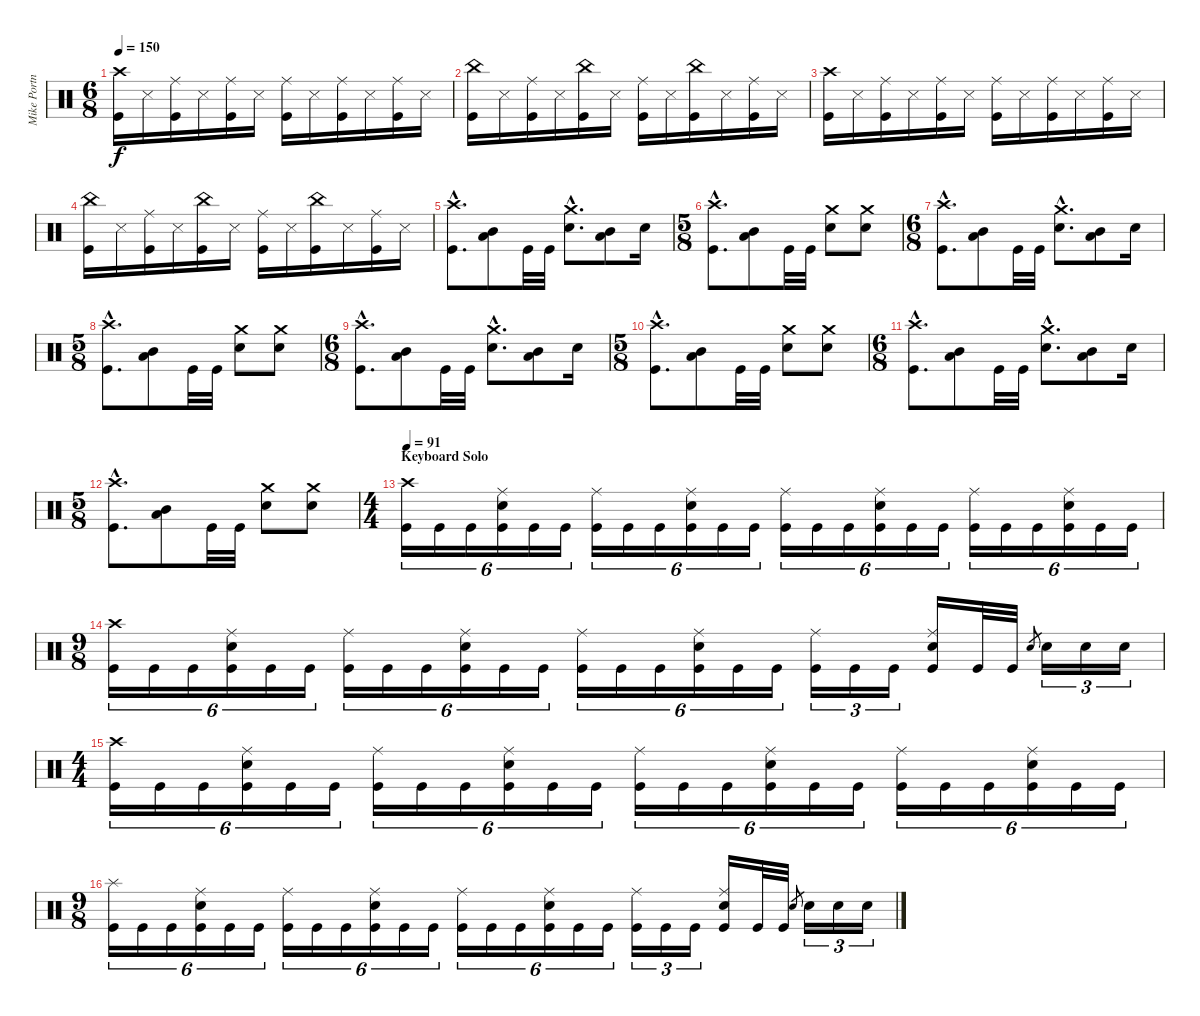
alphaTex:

\track ("Mike Portnoy" "Mike Portn") {instrument percussion}
\staff {score}
\articulation defaults
\ts (6 8)
\tempo 150
\clef neutral
\ks c
("Crash high (hit)" "Kick (hit)").16{dy f} "Snare (side stick) 3".16 ("Ride (middle)" "Kick (hit)").16 "Snare (side stick) 3".16 ("Ride (middle)" "Kick (hit)").16 "Snare (side stick) 3".16 ("Ride (middle)" "Kick (hit)").16 "Snare (side stick) 3".16 ("Ride (middle)" "Kick (hit)").16 "Snare (side stick) 3".16 ("Ride (middle)" "Kick (hit)").16 "Snare (side stick) 3".16 |
("China (hit)" "Kick (hit)").16 "Snare (side stick) 3".16 ("Ride (middle)" "Kick (hit)").16 "Snare (side stick) 3".16 ("China (hit)" "Kick (hit)").16 "Snare (side stick) 3".16 ("Ride (middle)" "Kick (hit)").16 "Snare (side stick) 3".16 ("China (hit)" "Kick (hit)").16 "Snare (side stick) 3".16 ("Ride (middle)" "Kick (hit)").16 "Snare (side stick) 3".16 |
("Crash high (hit)" "Kick (hit)").16 "Snare (side stick) 3".16 ("Ride (middle)" "Kick (hit)").16 "Snare (side stick) 3".16 ("Ride (middle)" "Kick (hit)").16 "Snare (side stick) 3".16 ("Ride (middle)" "Kick (hit)").16 "Snare (side stick) 3".16 ("Ride (middle)" "Kick (hit)").16 "Snare (side stick) 3".16 ("Ride (middle)" "Kick (hit)").16 "Snare (side stick) 3".16 |
("China (hit)" "Kick (hit)").16 "Snare (side stick) 3".16 ("Ride (middle)" "Kick (hit)").16 "Snare (side stick) 3".16 ("China (hit)" "Kick (hit)").16 "Snare (side stick) 3".16 ("Ride (middle)" "Kick (hit)").16 "Snare (side stick) 3".16 ("China (hit)" "Kick (hit)").16 "Snare (side stick) 3".16 ("Ride (middle)" "Kick (hit)").16 "Snare (side stick) 3".16 |
("Crash high (hit)"{hac} "Kick (hit)"{hac}).8{d} ("Mid Tom (hit)" "Low Tom (hit)").8 "Kick (hit)".32 "Kick (hit)".32 ("Crash medium (hit)"{hac} "Electric Snare (hit)"{hac}).8{d} ("Mid Tom (hit)" "Low Tom (hit)").8 "Electric Snare (hit)".16 |
\ts (5 8)
("Crash high (hit)"{hac} "Kick (hit)"{hac}).8{d} ("Mid Tom (hit)" "Low Tom (hit)").8 "Kick (hit)".32 "Kick (hit)".32 ("Crash medium (hit)" "Electric Snare (hit)").8 ("Crash medium (hit)" "Electric Snare (hit)").8 |
\ts (6 8)
("Crash high (hit)"{hac} "Kick (hit)"{hac}).8{d} ("Mid Tom (hit)" "Low Tom (hit)").8 "Kick (hit)".32 "Kick (hit)".32 ("Crash medium (hit)"{hac} "Electric Snare (hit)"{hac}).8{d} ("Mid Tom (hit)" "Low Tom (hit)").8 "Electric Snare (hit)".16 |
\ts (5 8)
("Crash high (hit)"{hac} "Kick (hit)"{hac}).8{d} ("Mid Tom (hit)" "Low Tom (hit)").8 "Kick (hit)".32 "Kick (hit)".32 ("Crash medium (hit)" "Electric Snare (hit)").8 ("Crash medium (hit)" "Electric Snare (hit)").8 |
\ts (6 8)
("Crash high (hit)"{hac} "Kick (hit)"{hac}).8{d} ("Mid Tom (hit)" "Low Tom (hit)").8 "Kick (hit)".32 "Kick (hit)".32 ("Crash medium (hit)"{hac} "Electric Snare (hit)"{hac}).8{d} ("Mid Tom (hit)" "Low Tom (hit)").8 "Electric Snare (hit)".16 |
\ts (5 8)
("Crash high (hit)"{hac} "Kick (hit)"{hac}).8{d} ("Mid Tom (hit)" "Low Tom (hit)").8 "Kick (hit)".32 "Kick (hit)".32 ("Crash medium (hit)" "Electric Snare (hit)").8 ("Crash medium (hit)" "Electric Snare (hit)").8 |
\ts (6 8)
("Crash high (hit)"{hac} "Kick (hit)"{hac}).8{d} ("Mid Tom (hit)" "Low Tom (hit)").8 "Kick (hit)".32 "Kick (hit)".32 ("Crash medium (hit)"{hac} "Electric Snare (hit)"{hac}).8{d} ("Mid Tom (hit)" "Low Tom (hit)").8 "Electric Snare (hit)".16 |
\ts (5 8)
("Crash high (hit)"{hac} "Kick (hit)"{hac}).8{d} ("Mid Tom (hit)" "Low Tom (hit)").8 "Kick (hit)".32 "Kick (hit)".32 ("Crash medium (hit)" "Electric Snare (hit)").8 ("Crash medium (hit)" "Electric Snare (hit)").8 |
\ts (4 4)
\section ("" "Keyboard Solo")
\tempo 91
("Crash high (hit)" "Kick (hit)").16{tu (6 4)} "Kick (hit)".16{tu (6 4)} "Kick (hit)".16{tu (6 4)} ("Ride (middle)" "Electric Snare (hit)" "Kick (hit)").16{tu (6 4)} "Kick (hit)".16{tu (6 4)} "Kick (hit)".16{tu (6 4)} ("Ride (middle)" "Kick (hit)").16{tu (6 4)} "Kick (hit)".16{tu (6 4)} "Kick (hit)".16{tu (6 4)} ("Ride (middle)" "Electric Snare (hit)" "Kick (hit)").16{tu (6 4)} "Kick (hit)".16{tu (6 4)} "Kick (hit)".16{tu (6 4)} ("Ride (middle)" "Kick (hit)").16{tu (6 4)} "Kick (hit)".16{tu (6 4)} "Kick (hit)".16{tu (6 4)} ("Ride (middle)" "Electric Snare (hit)" "Kick (hit)").16{tu (6 4)} "Kick (hit)".16{tu (6 4)} "Kick (hit)".16{tu (6 4)} ("Ride (middle)" "Kick (hit)").16{tu (6 4)} "Kick (hit)".16{tu (6 4)} "Kick (hit)".16{tu (6 4)} ("Ride (middle)" "Electric Snare (hit)" "Kick (hit)").16{tu (6 4)} "Kick (hit)".16{tu (6 4)} "Kick (hit)".16{tu (6 4)} |
\ts (9 8)
("Crash high (hit)" "Kick (hit)").16{tu (6 4)} "Kick (hit)".16{tu (6 4)} "Kick (hit)".16{tu (6 4)} ("Ride (middle)" "Electric Snare (hit)" "Kick (hit)").16{tu (6 4)} "Kick (hit)".16{tu (6 4)} "Kick (hit)".16{tu (6 4)} ("Ride (middle)" "Kick (hit)").16{tu (6 4)} "Kick (hit)".16{tu (6 4)} "Kick (hit)".16{tu (6 4)} ("Ride (middle)" "Electric Snare (hit)" "Kick (hit)").16{tu (6 4)} "Kick (hit)".16{tu (6 4)} "Kick (hit)".16{tu (6 4)} ("Ride (middle)" "Kick (hit)").16{tu (6 4)} "Kick (hit)".16{tu (6 4)} "Kick (hit)".16{tu (6 4)} ("Ride (middle)" "Electric Snare (hit)" "Kick (hit)").16{tu (6 4)} "Kick (hit)".16{tu (6 4)} "Kick (hit)".16{tu (6 4)} ("Ride (middle)" "Kick (hit)").16{tu (3 2)} "Kick (hit)".16{tu (3 2)} "Kick (hit)".16{tu (3 2)} ("Ride (middle)" "Electric Snare (hit)" "Kick (hit)").16 "Kick (hit)".32 "Kick (hit)".32 "Electric Snare (hit)".8{gr} "Electric Snare (hit)".16{tu (3 2)} "Electric Snare (hit)".16{tu (3 2)} "Electric Snare (hit)".16{tu (3 2)} |
\ts (4 4)
("Crash high (hit)" "Kick (hit)").16{tu (6 4)} "Kick (hit)".16{tu (6 4)} "Kick (hit)".16{tu (6 4)} ("Ride (middle)" "Electric Snare (hit)" "Kick (hit)").16{tu (6 4)} "Kick (hit)".16{tu (6 4)} "Kick (hit)".16{tu (6 4)} ("Ride (middle)" "Kick (hit)").16{tu (6 4)} "Kick (hit)".16{tu (6 4)} "Kick (hit)".16{tu (6 4)} ("Ride (middle)" "Electric Snare (hit)" "Kick (hit)").16{tu (6 4)} "Kick (hit)".16{tu (6 4)} "Kick (hit)".16{tu (6 4)} ("Ride (middle)" "Kick (hit)").16{tu (6 4)} "Kick (hit)".16{tu (6 4)} "Kick (hit)".16{tu (6 4)} ("Ride (middle)" "Electric Snare (hit)" "Kick (hit)").16{tu (6 4)} "Kick (hit)".16{tu (6 4)} "Kick (hit)".16{tu (6 4)} ("Ride (middle)" "Kick (hit)").16{tu (6 4)} "Kick (hit)".16{tu (6 4)} "Kick (hit)".16{tu (6 4)} ("Ride (middle)" "Electric Snare (hit)" "Kick (hit)").16{tu (6 4)} "Kick (hit)".16{tu (6 4)} "Kick (hit)".16{tu (6 4)} |
\ts (9 8)
("Splash (hit)" "Kick (hit)").16{tu (6 4)} "Kick (hit)".16{tu (6 4)} "Kick (hit)".16{tu (6 4)} ("Ride (middle)" "Electric Snare (hit)" "Kick (hit)").16{tu (6 4)} "Kick (hit)".16{tu (6 4)} "Kick (hit)".16{tu (6 4)} ("Ride (middle)" "Kick (hit)").16{tu (6 4)} "Kick (hit)".16{tu (6 4)} "Kick (hit)".16{tu (6 4)} ("Ride (middle)" "Electric Snare (hit)" "Kick (hit)").16{tu (6 4)} "Kick (hit)".16{tu (6 4)} "Kick (hit)".16{tu (6 4)} ("Ride (middle)" "Kick (hit)").16{tu (6 4)} "Kick (hit)".16{tu (6 4)} "Kick (hit)".16{tu (6 4)} ("Ride (middle)" "Electric Snare (hit)" "Kick (hit)").16{tu (6 4)} "Kick (hit)".16{tu (6 4)} "Kick (hit)".16{tu (6 4)} ("Ride (middle)" "Kick (hit)").16{tu (3 2)} "Kick (hit)".16{tu (3 2)} "Kick (hit)".16{tu (3 2)} ("Ride (middle)" "Electric Snare (hit)" "Kick (hit)").16 "Kick (hit)".32 "Kick (hit)".32 "Electric Snare (hit)".8{gr} "Electric Snare (hit)".16{tu (3 2)} "Electric Snare (hit)".16{tu (3 2)} "Electric Snare (hit)".16{tu (3 2)}
